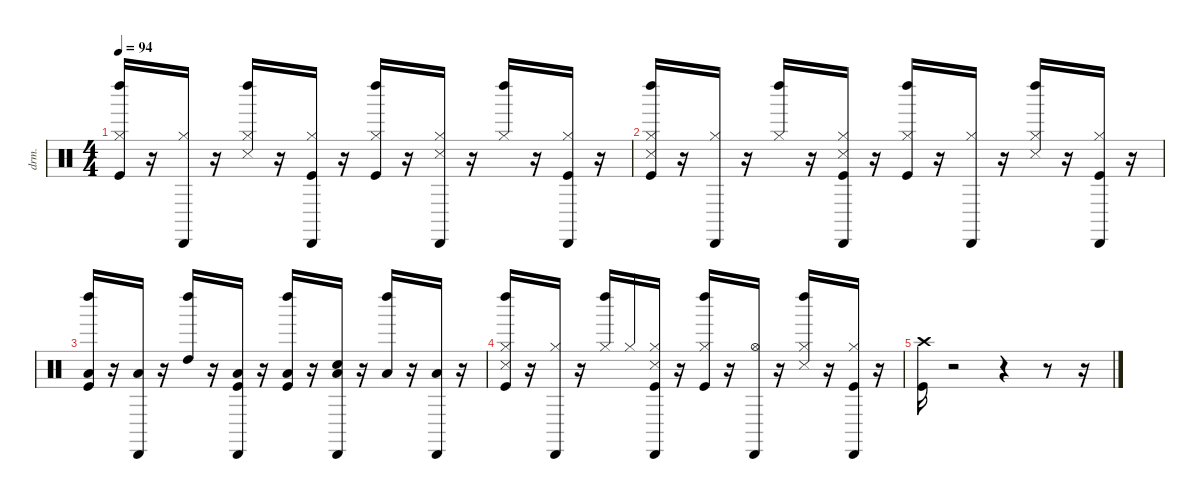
\defaultSystemsLayout 4
\hideDynamics
\bracketExtendMode nobrackets
\otherSystemsTrackNameOrientation horizontal
\track ("Drums" "drm.") {instrument percussion}
\staff {score}
\articulation defaults
\ts (4 4)
\tempo 94
\clef neutral
\ks c
("Left Maraca (hit)" "Hi-Hat (closed)" "Kick (hit)").16{dy mf beam Up} r.16{beam Up} ("Cabasa (hit)" "Hi-Hat (closed)").16{dy p beam Up} r.16{beam Up} ("Left Maraca (hit)" "Hi-Hat (closed)" "Snare (side stick) 3").16{dy mf beam Up} r.16{beam Up} ("Cabasa (hit)" "Hi-Hat (closed)" "Kick (hit)").16{dy p beam Up} r.16{beam Up} ("Left Maraca (hit)" "Hi-Hat (closed)" "Kick (hit)").16{dy mf beam Up} r.16{beam Up} ("Cabasa (hit)" "Hi-Hat (closed)" "Snare (side stick) 3").16{dy p beam Up} r.16{beam Up} ("Left Maraca (hit)" "Hi-Hat (closed)").16{dy mf beam Up} r.16{beam Up} ("Cabasa (hit)" "Hi-Hat (closed)" "Kick (hit)").16{dy p beam Up} r.16{beam Up} |
("Left Maraca (hit)" "Hi-Hat (closed)" "Snare (side stick) 3" "Kick (hit)").16{dy mf beam Up} r.16{beam Up} ("Cabasa (hit)" "Hi-Hat (closed)").16{dy p beam Up} r.16{beam Up} ("Left Maraca (hit)" "Hi-Hat (closed)").16{dy mf beam Up} r.16{beam Up} ("Cabasa (hit)" "Hi-Hat (closed)" "Snare (side stick) 3" "Kick (hit)").16{dy p beam Up} r.16{beam Up} ("Left Maraca (hit)" "Hi-Hat (closed)" "Kick (hit)").16{dy mf beam Up} r.16{beam Up} ("Cabasa (hit)" "Hi-Hat (closed)").16{dy p beam Up} r.16{beam Up} ("Left Maraca (hit)" "Hi-Hat (closed)" "Snare (side stick) 3").16{dy mf beam Up} r.16{beam Up} ("Cabasa (hit)" "Hi-Hat (closed)" "Kick (hit)").16{dy p beam Up} r.16{beam Up} |
("Left Maraca (hit)" "Low Tom (hit)" "Kick (hit)").16{dy mf beam Up} r.16{beam Up} ("Cabasa (hit)" "Low Tom (hit)").16{dy p beam Up} r.16{beam Up} ("Left Maraca (hit)" "High Tom (hit)").16{dy mf beam Up} r.16{beam Up} ("Cabasa (hit)" "Low Tom (hit)" "Kick (hit)").16{dy p beam Up} r.16{beam Up} ("Left Maraca (hit)" "Low Tom (hit)" "Kick (hit)").16{dy mf beam Up} r.16{beam Up} ("Cabasa (hit)" "Low Tom (hit)" "Snare (hit) 2").16{dy p beam Up} r.16{beam Up} ("Left Maraca (hit)" "Low Floor Tom (hit)").16{dy mf beam Up} r.16{beam Up} ("Cabasa (hit)" "Low Floor Tom (hit)").16{dy p beam Up} r.16{beam Up} |
("Left Maraca (hit)" "Hi-Hat (closed)" "Snare (side stick) 3" "Kick (hit)").16{dy mf beam Up} r.16{beam Up} ("Cabasa (hit)" "Hi-Hat (closed)").16{dy p beam Up} r.16{beam Up} ("Left Maraca (hit)" "Hi-Hat (closed)").16{dy mf beam Up} "Hi-Hat (closed)".16{beam Up} ("Cabasa (hit)" "Hi-Hat (closed)" "Snare (side stick) 3" "Kick (hit)").16{dy p beam Up} r.16{beam Up} ("Left Maraca (hit)" "Hi-Hat (closed)" "Kick (hit)").16{dy mf beam Up} r.16{beam Up} ("Cabasa (hit)" "Hi-Hat (open)").16{dy p beam Up} r.16{beam Up} ("Left Maraca (hit)" "Hi-Hat (closed)" "Snare (side stick) 3").16{dy mf beam Up} r.16{beam Up} ("Cabasa (hit)" "Hi-Hat (closed)" "Kick (hit)").16{dy p beam Up} r.16{beam Up} |
("Crash high (hit)" "Kick (hit)").16{dy mf beam Down} r.2{beam Down} r.4{beam Down} r.8{beam Down} r.16{beam Down}
